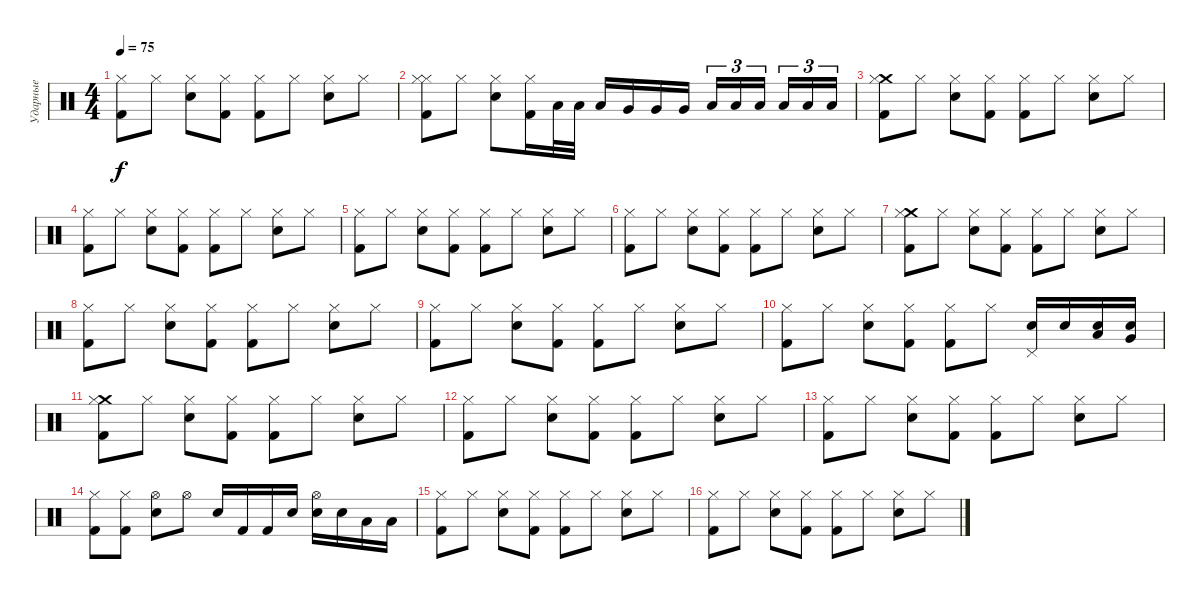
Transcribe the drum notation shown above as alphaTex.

\track ("Ударные" "Ударные") {instrument percussion}
\staff {score}
\articulation defaults
\ts (4 4)
\tempo 75
\clef neutral
\ks c
("Hi-Hat (closed)" "Kick (hit) 2").8{dy f} "Hi-Hat (closed)".8 ("Electric Snare (hit)" "Hi-Hat (closed)").8 ("Hi-Hat (closed)" "Kick (hit) 2").8 ("Hi-Hat (closed)" "Kick (hit) 2").8 "Hi-Hat (closed)".8 ("Electric Snare (hit)" "Hi-Hat (closed)").8 "Hi-Hat (closed)".8 |
("Hi-Hat (closed)" "Hi-Hat (closed)" "Kick (hit) 2").8 "Hi-Hat (closed)".8 ("Electric Snare (hit)" "Hi-Hat (closed)").8 ("Hi-Hat (closed)" "Kick (hit) 2").16 "Low Tom (hit)".32 "Low Tom (hit)".32 "Low Tom (hit)".16 "Very Low Tom (hit)".16 "Very Low Tom (hit)".16 "Very Low Tom (hit)".16 "Low Tom (hit)".16{tu (3 2)} "Low Tom (hit)".16{tu (3 2)} "Low Tom (hit)".16{tu (3 2) beam splitsecondary} "Low Floor Tom (hit)".16{tu (3 2)} "Low Floor Tom (hit)".16{tu (3 2)} "Low Floor Tom (hit)".16{tu (3 2)} |
("Crash medium (hit)" "Hi-Hat (closed)" "Kick (hit) 2").8 "Hi-Hat (closed)".8 ("Electric Snare (hit)" "Hi-Hat (closed)").8 ("Hi-Hat (closed)" "Kick (hit) 2").8 ("Hi-Hat (closed)" "Kick (hit) 2").8 "Hi-Hat (closed)".8 ("Electric Snare (hit)" "Hi-Hat (closed)").8 "Hi-Hat (closed)".8 |
("Hi-Hat (closed)" "Kick (hit) 2").8 "Hi-Hat (closed)".8 ("Electric Snare (hit)" "Hi-Hat (closed)").8 ("Hi-Hat (closed)" "Kick (hit) 2").8 ("Hi-Hat (closed)" "Kick (hit) 2").8 "Hi-Hat (closed)".8 ("Electric Snare (hit)" "Hi-Hat (closed)").8 "Hi-Hat (closed)".8 |
("Hi-Hat (closed)" "Kick (hit) 2").8 "Hi-Hat (closed)".8 ("Electric Snare (hit)" "Hi-Hat (closed)").8 ("Hi-Hat (closed)" "Kick (hit) 2").8 ("Hi-Hat (closed)" "Kick (hit) 2").8 "Hi-Hat (closed)".8 ("Electric Snare (hit)" "Hi-Hat (closed)").8 "Hi-Hat (closed)".8 |
("Hi-Hat (closed)" "Kick (hit) 2").8 "Hi-Hat (closed)".8 ("Electric Snare (hit)" "Hi-Hat (closed)").8 ("Hi-Hat (closed)" "Kick (hit) 2").8 ("Hi-Hat (closed)" "Kick (hit) 2").8 "Hi-Hat (closed)".8 ("Electric Snare (hit)" "Hi-Hat (closed)").8 "Hi-Hat (closed)".8 |
("Crash medium (hit)" "Hi-Hat (closed)" "Kick (hit) 2").8 "Hi-Hat (closed)".8 ("Electric Snare (hit)" "Hi-Hat (closed)").8 ("Hi-Hat (closed)" "Kick (hit) 2").8 ("Hi-Hat (closed)" "Kick (hit) 2").8 "Hi-Hat (closed)".8 ("Electric Snare (hit)" "Hi-Hat (closed)").8 "Hi-Hat (closed)".8 |
("Hi-Hat (closed)" "Kick (hit) 2").8 "Hi-Hat (closed)".8 ("Electric Snare (hit)" "Hi-Hat (closed)").8 ("Hi-Hat (closed)" "Kick (hit) 2").8 ("Hi-Hat (closed)" "Kick (hit) 2").8 "Hi-Hat (closed)".8 ("Electric Snare (hit)" "Hi-Hat (closed)").8 "Hi-Hat (closed)".8 |
("Hi-Hat (closed)" "Kick (hit) 2").8 "Hi-Hat (closed)".8 ("Electric Snare (hit)" "Hi-Hat (closed)").8 ("Hi-Hat (closed)" "Kick (hit) 2").8 ("Hi-Hat (closed)" "Kick (hit) 2").8 "Hi-Hat (closed)".8 ("Electric Snare (hit)" "Hi-Hat (closed)").8 "Hi-Hat (closed)".8 |
("Hi-Hat (closed)" "Kick (hit) 2").8 "Hi-Hat (closed)".8 ("Electric Snare (hit)" "Hi-Hat (closed)").8 ("Hi-Hat (closed)" "Kick (hit) 2").8 ("Hi-Hat (closed)" "Kick (hit) 2").8 "Hi-Hat (closed)".8 ("Pedal Hi-Hat (hit)" "Electric Snare (hit)").16 "Electric Snare (hit)".16 ("Low Tom (hit)" "Electric Snare (hit)").16 ("Very Low Tom (hit)" "Electric Snare (hit)").16 |
("Crash medium (hit)" "Hi-Hat (closed)" "Kick (hit) 2").8 "Hi-Hat (closed)".8 ("Electric Snare (hit)" "Hi-Hat (closed)").8 ("Hi-Hat (closed)" "Kick (hit) 2").8 ("Hi-Hat (closed)" "Kick (hit) 2").8 "Hi-Hat (closed)".8 ("Electric Snare (hit)" "Hi-Hat (closed)").8 "Hi-Hat (closed)".8 |
("Hi-Hat (closed)" "Kick (hit) 2").8 "Hi-Hat (closed)".8 ("Electric Snare (hit)" "Hi-Hat (closed)").8 ("Hi-Hat (closed)" "Kick (hit) 2").8 ("Hi-Hat (closed)" "Kick (hit) 2").8 "Hi-Hat (closed)".8 ("Electric Snare (hit)" "Hi-Hat (closed)").8 "Hi-Hat (closed)".8 |
("Hi-Hat (closed)" "Kick (hit) 2").8 "Hi-Hat (closed)".8 ("Electric Snare (hit)" "Hi-Hat (closed)").8 ("Hi-Hat (closed)" "Kick (hit) 2").8 ("Hi-Hat (closed)" "Kick (hit) 2").8 "Hi-Hat (closed)".8 ("Electric Snare (hit)" "Hi-Hat (closed)").8 "Hi-Hat (closed)".8 |
("Hi-Hat (closed)" "Kick (hit) 2").8 ("Hi-Hat (closed)" "Kick (hit) 2").8 ("Electric Snare (hit)" "Hi-Hat (open)").8 "Hi-Hat (open)".8 "Electric Snare (hit)".16 "Kick (hit) 2".16 "Kick (hit) 2".16 "Electric Snare (hit)".16 ("Electric Snare (hit)" "Hi-Hat (open)").16 "Electric Snare (hit)".16 "Low Tom (hit)".16 "Low Tom (hit)".16 |
("Hi-Hat (closed)" "Kick (hit) 2").8 "Hi-Hat (closed)".8 ("Electric Snare (hit)" "Hi-Hat (closed)").8 ("Hi-Hat (closed)" "Kick (hit) 2").8 ("Hi-Hat (closed)" "Kick (hit) 2").8 "Hi-Hat (closed)".8 ("Electric Snare (hit)" "Hi-Hat (closed)").8 "Hi-Hat (closed)".8 |
("Hi-Hat (closed)" "Kick (hit) 2").8 "Hi-Hat (closed)".8 ("Electric Snare (hit)" "Hi-Hat (closed)").8 ("Hi-Hat (closed)" "Kick (hit) 2").8 ("Hi-Hat (closed)" "Kick (hit) 2").8 "Hi-Hat (closed)".8 ("Electric Snare (hit)" "Hi-Hat (closed)").8 "Hi-Hat (closed)".8
